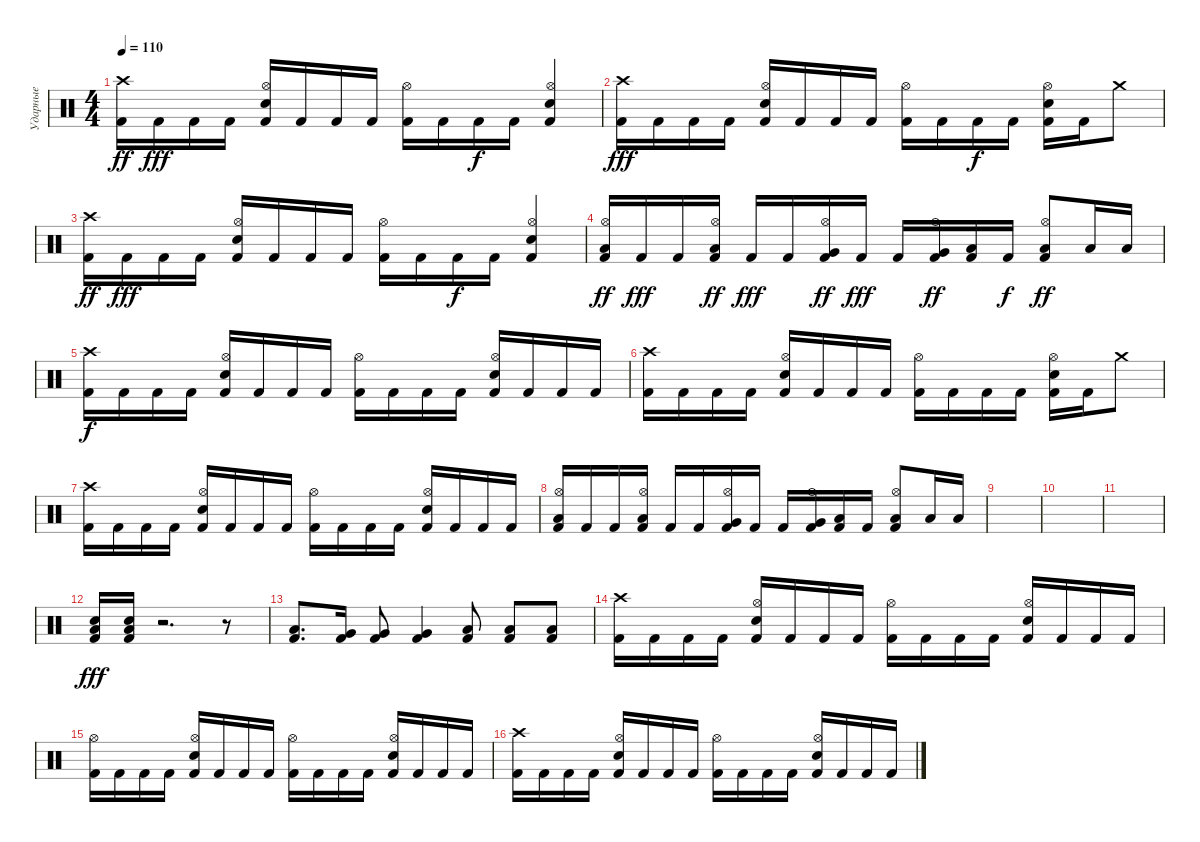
\track ("Ударные" "Ударные") {instrument percussion}
\staff {score}
\articulation defaults
\ts (4 4)
\tempo 110
\clef neutral
\ks c
("Kick (hit) 2" "Crash high (hit)").16{dy ff} "Kick (hit) 2".16{dy fff} "Kick (hit) 2".16 "Kick (hit) 2".16 ("Kick (hit) 2" "Hi-Hat (open)" "Snare (hit) 2").16 "Kick (hit) 2".16 "Kick (hit) 2".16 "Kick (hit) 2".16 ("Kick (hit) 2" "Hi-Hat (open)").16 "Kick (hit) 2".16 "Kick (hit) 2".16{dy f} "Kick (hit) 2".16 ("Kick (hit) 2" "Hi-Hat (open)" "Snare (hit) 2").4 |
("Kick (hit) 2" "Crash high (hit)").16{dy fff} "Kick (hit) 2".16 "Kick (hit) 2".16 "Kick (hit) 2".16 ("Kick (hit) 2" "Hi-Hat (open)" "Snare (hit) 2").16 "Kick (hit) 2".16 "Kick (hit) 2".16 "Kick (hit) 2".16 ("Kick (hit) 2" "Hi-Hat (open)").16 "Kick (hit) 2".16 "Kick (hit) 2".16{dy f} "Kick (hit) 2".16 ("Kick (hit) 2" "Hi-Hat (open)" "Snare (hit) 2").16 "Kick (hit) 2".16 "Crash medium (hit)".8 |
("Kick (hit) 2" "Crash high (hit)").16{dy ff} "Kick (hit) 2".16{dy fff} "Kick (hit) 2".16 "Kick (hit) 2".16 ("Kick (hit) 2" "Hi-Hat (open)" "Snare (hit) 2").16 "Kick (hit) 2".16 "Kick (hit) 2".16 "Kick (hit) 2".16 ("Kick (hit) 2" "Hi-Hat (open)").16 "Kick (hit) 2".16 "Kick (hit) 2".16{dy f} "Kick (hit) 2".16 ("Kick (hit) 2" "Hi-Hat (open)" "Snare (hit) 2").4 |
("Kick (hit) 2" "Low Floor Tom (hit)" "Hi-Hat (open)").16{dy ff} "Kick (hit) 2".16{dy fff} "Kick (hit) 2".16 ("Kick (hit) 2" "Low Floor Tom (hit)" "Hi-Hat (open)").16{dy ff} "Kick (hit) 2".16{dy fff} "Kick (hit) 2".16 ("Kick (hit) 2" "Very Low Tom (hit)" "Hi-Hat (open)").16{dy ff} "Kick (hit) 2".16{dy fff} "Kick (hit) 2".16 ("Kick (hit) 2" "Very Low Tom (hit)" "Hi-Hat (open)").16{dy ff} ("Kick (hit) 2" "Low Tom (hit)").16 "Kick (hit) 2".16{dy f} ("Kick (hit) 2" "Low Tom (hit)" "Hi-Hat (open)").8{dy ff} "Low Floor Tom (hit)".16 "Low Floor Tom (hit)".16 |
("Kick (hit) 2" "Crash high (hit)").16{dy f} "Kick (hit) 2".16 "Kick (hit) 2".16 "Kick (hit) 2".16 ("Kick (hit) 2" "Hi-Hat (open)" "Snare (hit) 2").16 "Kick (hit) 2".16 "Kick (hit) 2".16 "Kick (hit) 2".16 ("Kick (hit) 2" "Hi-Hat (open)").16 "Kick (hit) 2".16 "Kick (hit) 2".16 "Kick (hit) 2".16 ("Kick (hit) 2" "Hi-Hat (open)" "Snare (hit) 2").16 "Kick (hit) 2".16 "Kick (hit) 2".16 "Kick (hit) 2".16 |
("Kick (hit) 2" "Crash high (hit)").16 "Kick (hit) 2".16 "Kick (hit) 2".16 "Kick (hit) 2".16 ("Kick (hit) 2" "Hi-Hat (open)" "Snare (hit) 2").16 "Kick (hit) 2".16 "Kick (hit) 2".16 "Kick (hit) 2".16 ("Kick (hit) 2" "Hi-Hat (open)").16 "Kick (hit) 2".16 "Kick (hit) 2".16 "Kick (hit) 2".16 ("Kick (hit) 2" "Hi-Hat (open)" "Snare (hit) 2").16 "Kick (hit) 2".16 "Crash medium (hit)".8 |
("Kick (hit) 2" "Crash high (hit)").16 "Kick (hit) 2".16 "Kick (hit) 2".16 "Kick (hit) 2".16 ("Kick (hit) 2" "Hi-Hat (open)" "Snare (hit) 2").16 "Kick (hit) 2".16 "Kick (hit) 2".16 "Kick (hit) 2".16 ("Kick (hit) 2" "Hi-Hat (open)").16 "Kick (hit) 2".16 "Kick (hit) 2".16 "Kick (hit) 2".16 ("Kick (hit) 2" "Hi-Hat (open)" "Snare (hit) 2").16 "Kick (hit) 2".16 "Kick (hit) 2".16 "Kick (hit) 2".16 |
("Kick (hit) 2" "Low Floor Tom (hit)" "Hi-Hat (open)").16 "Kick (hit) 2".16 "Kick (hit) 2".16 ("Kick (hit) 2" "Low Floor Tom (hit)" "Hi-Hat (open)").16 "Kick (hit) 2".16 "Kick (hit) 2".16 ("Kick (hit) 2" "Very Low Tom (hit)" "Hi-Hat (open)").16 "Kick (hit) 2".16 "Kick (hit) 2".16 ("Kick (hit) 2" "Very Low Tom (hit)" "Hi-Hat (open)").16 ("Kick (hit) 2" "Low Tom (hit)").16 "Kick (hit) 2".16 ("Kick (hit) 2" "Low Tom (hit)" "Hi-Hat (open)").8 "Low Floor Tom (hit)".16 "Low Floor Tom (hit)".16 |
|
|
|
("Kick (hit) 2" "Low Floor Tom (hit)" "Snare (hit) 2").16{dy fff} ("Kick (hit) 2" "Low Floor Tom (hit)" "Snare (hit) 2").16 r.2{d} r.8 |
("Low Tom (hit)" "Kick (hit) 2").8{d} ("Very Low Tom (hit)" "Kick (hit) 2").16 ("Very Low Tom (hit)" "Kick (hit) 2").8 ("Very Low Tom (hit)" "Kick (hit) 2").4 ("Kick (hit) 2" "Low Floor Tom (hit)").8 ("Kick (hit) 2" "Low Floor Tom (hit)").8 ("Kick (hit) 2" "Low Floor Tom (hit)").8 |
("Kick (hit) 2" "Crash high (hit)").16 "Kick (hit) 2".16 "Kick (hit) 2".16 "Kick (hit) 2".16 ("Kick (hit) 2" "Hi-Hat (open)" "Snare (hit) 2").16 "Kick (hit) 2".16 "Kick (hit) 2".16 "Kick (hit) 2".16 ("Kick (hit) 2" "Hi-Hat (open)").16 "Kick (hit) 2".16 "Kick (hit) 2".16 "Kick (hit) 2".16 ("Kick (hit) 2" "Hi-Hat (open)" "Snare (hit) 2").16 "Kick (hit) 2".16 "Kick (hit) 2".16 "Kick (hit) 2".16 |
("Kick (hit) 2" "Hi-Hat (open)").16 "Kick (hit) 2".16 "Kick (hit) 2".16 "Kick (hit) 2".16 ("Kick (hit) 2" "Hi-Hat (open)" "Snare (hit) 2").16 "Kick (hit) 2".16 "Kick (hit) 2".16 "Kick (hit) 2".16 ("Kick (hit) 2" "Hi-Hat (open)").16 "Kick (hit) 2".16 "Kick (hit) 2".16 "Kick (hit) 2".16 ("Kick (hit) 2" "Hi-Hat (open)" "Snare (hit) 2").16 "Kick (hit) 2".16 "Kick (hit) 2".16 "Kick (hit) 2".16 |
("Kick (hit) 2" "Crash high (hit)").16 "Kick (hit) 2".16 "Kick (hit) 2".16 "Kick (hit) 2".16 ("Kick (hit) 2" "Hi-Hat (open)" "Snare (hit) 2").16 "Kick (hit) 2".16 "Kick (hit) 2".16 "Kick (hit) 2".16 ("Kick (hit) 2" "Hi-Hat (open)").16 "Kick (hit) 2".16 "Kick (hit) 2".16 "Kick (hit) 2".16 ("Kick (hit) 2" "Hi-Hat (open)" "Snare (hit) 2").16 "Kick (hit) 2".16 "Kick (hit) 2".16 "Kick (hit) 2".16
